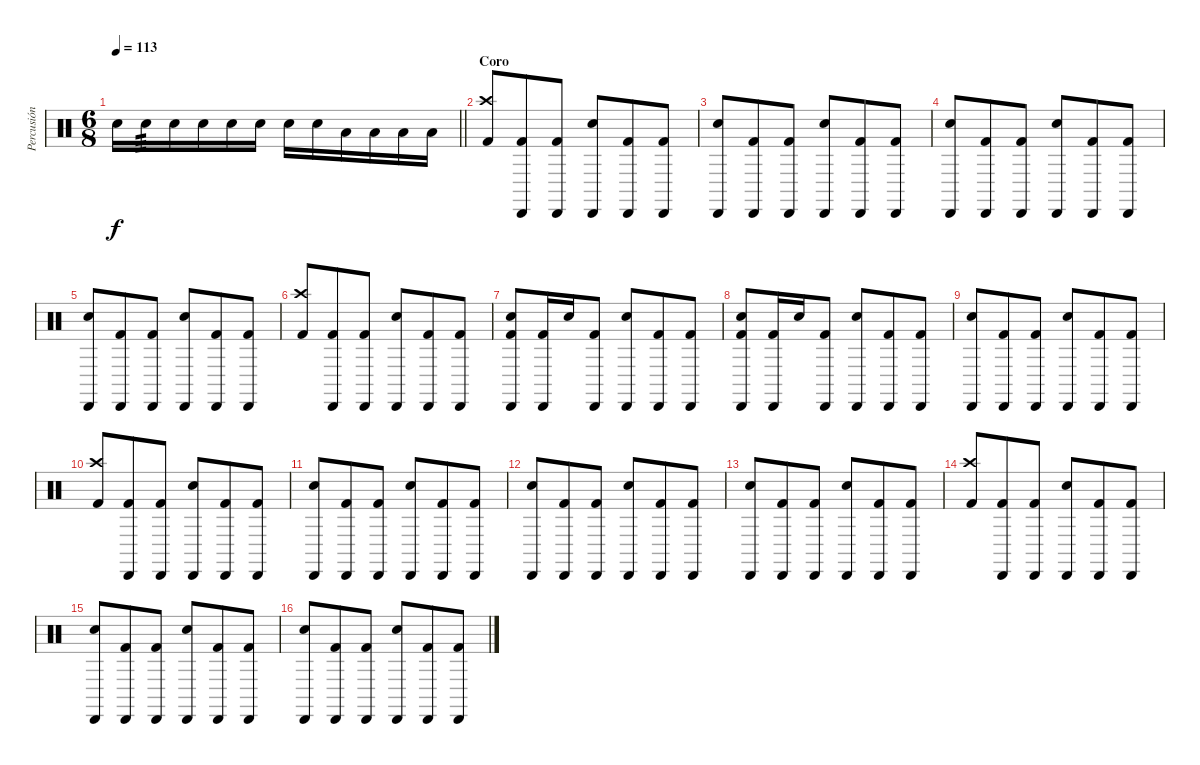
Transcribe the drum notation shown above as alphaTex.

\track ("Percusión" "Percusión") {instrument percussion}
\staff {score}
\articulation defaults
\ts (6 8)
\tempo 113
\clef neutral
\barLineRight lightlight
\ks c "Electric Snare (hit)".16{dy f} "Electric Snare (hit)".16{tp 3} "Electric Snare (hit)".16 "Electric Snare (hit)".16 "Electric Snare (hit)".16 "Electric Snare (hit)".16 "Electric Snare (hit)".16 "Electric Snare (hit)".16 "Low Tom (hit)".16 "Low Tom (hit)".16 "Low Tom (hit)".16 "Low Tom (hit)".16
|
\section ("" "Coro")
("Crash high (hit)" "Kick (hit) 2").8 ("Cabasa (hit)" "Kick (hit) 2").8 ("Cabasa (hit)" "Kick (hit) 2").8 ("Cabasa (hit)" "Electric Snare (hit)").8 ("Cabasa (hit)" "Kick (hit) 2").8 ("Cabasa (hit)" "Kick (hit) 2").8 |
("Cabasa (hit)" "Electric Snare (hit)").8 ("Cabasa (hit)" "Kick (hit) 2").8 ("Cabasa (hit)" "Kick (hit) 2").8 ("Cabasa (hit)" "Electric Snare (hit)").8 ("Cabasa (hit)" "Kick (hit) 2").8 ("Cabasa (hit)" "Kick (hit) 2").8 |
("Cabasa (hit)" "Electric Snare (hit)").8 ("Cabasa (hit)" "Kick (hit) 2").8 ("Cabasa (hit)" "Kick (hit) 2").8 ("Cabasa (hit)" "Electric Snare (hit)").8 ("Cabasa (hit)" "Kick (hit) 2").8 ("Cabasa (hit)" "Kick (hit) 2").8 |
("Cabasa (hit)" "Electric Snare (hit)").8 ("Cabasa (hit)" "Kick (hit) 2").8 ("Cabasa (hit)" "Kick (hit) 2").8 ("Cabasa (hit)" "Electric Snare (hit)").8 ("Cabasa (hit)" "Kick (hit) 2").8 ("Cabasa (hit)" "Kick (hit) 2").8 |
("Crash high (hit)" "Kick (hit) 2").8 ("Cabasa (hit)" "Kick (hit) 2").8 ("Cabasa (hit)" "Kick (hit) 2").8 ("Cabasa (hit)" "Electric Snare (hit)").8 ("Cabasa (hit)" "Kick (hit) 2").8 ("Cabasa (hit)" "Kick (hit) 2").8 |
("Cabasa (hit)" "Electric Snare (hit)" "Kick (hit) 2").8 ("Cabasa (hit)" "Kick (hit) 2").16 "Electric Snare (hit)".16 ("Cabasa (hit)" "Kick (hit) 2").8 ("Cabasa (hit)" "Electric Snare (hit)").8 ("Cabasa (hit)" "Kick (hit) 2").8 ("Cabasa (hit)" "Kick (hit) 2").8 |
("Cabasa (hit)" "Electric Snare (hit)" "Kick (hit) 2").8 ("Cabasa (hit)" "Kick (hit) 2").16 "Electric Snare (hit)".16 ("Cabasa (hit)" "Kick (hit) 2").8 ("Cabasa (hit)" "Electric Snare (hit)").8 ("Cabasa (hit)" "Kick (hit) 2").8 ("Cabasa (hit)" "Kick (hit) 2").8 |
("Cabasa (hit)" "Electric Snare (hit)").8 ("Cabasa (hit)" "Kick (hit) 2").8 ("Cabasa (hit)" "Kick (hit) 2").8 ("Cabasa (hit)" "Electric Snare (hit)").8 ("Cabasa (hit)" "Kick (hit) 2").8 ("Cabasa (hit)" "Kick (hit) 2").8 |
("Crash high (hit)" "Kick (hit) 2").8 ("Cabasa (hit)" "Kick (hit) 2").8 ("Cabasa (hit)" "Kick (hit) 2").8 ("Cabasa (hit)" "Electric Snare (hit)").8 ("Cabasa (hit)" "Kick (hit) 2").8 ("Cabasa (hit)" "Kick (hit) 2").8 |
("Cabasa (hit)" "Electric Snare (hit)").8 ("Cabasa (hit)" "Kick (hit) 2").8 ("Cabasa (hit)" "Kick (hit) 2").8 ("Cabasa (hit)" "Electric Snare (hit)").8 ("Cabasa (hit)" "Kick (hit) 2").8 ("Cabasa (hit)" "Kick (hit) 2").8 |
("Cabasa (hit)" "Electric Snare (hit)").8 ("Cabasa (hit)" "Kick (hit) 2").8 ("Cabasa (hit)" "Kick (hit) 2").8 ("Cabasa (hit)" "Electric Snare (hit)").8 ("Cabasa (hit)" "Kick (hit) 2").8 ("Cabasa (hit)" "Kick (hit) 2").8 |
("Cabasa (hit)" "Electric Snare (hit)").8 ("Cabasa (hit)" "Kick (hit) 2").8 ("Cabasa (hit)" "Kick (hit) 2").8 ("Cabasa (hit)" "Electric Snare (hit)").8 ("Cabasa (hit)" "Kick (hit) 2").8 ("Cabasa (hit)" "Kick (hit) 2").8 |
("Crash high (hit)" "Kick (hit) 2").8 ("Cabasa (hit)" "Kick (hit) 2").8 ("Cabasa (hit)" "Kick (hit) 2").8 ("Cabasa (hit)" "Electric Snare (hit)").8 ("Cabasa (hit)" "Kick (hit) 2").8 ("Cabasa (hit)" "Kick (hit) 2").8 |
("Cabasa (hit)" "Electric Snare (hit)").8 ("Cabasa (hit)" "Kick (hit) 2").8 ("Cabasa (hit)" "Kick (hit) 2").8 ("Cabasa (hit)" "Electric Snare (hit)").8 ("Cabasa (hit)" "Kick (hit) 2").8 ("Cabasa (hit)" "Kick (hit) 2").8 |
("Cabasa (hit)" "Electric Snare (hit)").8 ("Cabasa (hit)" "Kick (hit) 2").8 ("Cabasa (hit)" "Kick (hit) 2").8 ("Cabasa (hit)" "Electric Snare (hit)").8 ("Cabasa (hit)" "Kick (hit) 2").8 ("Cabasa (hit)" "Kick (hit) 2").8
